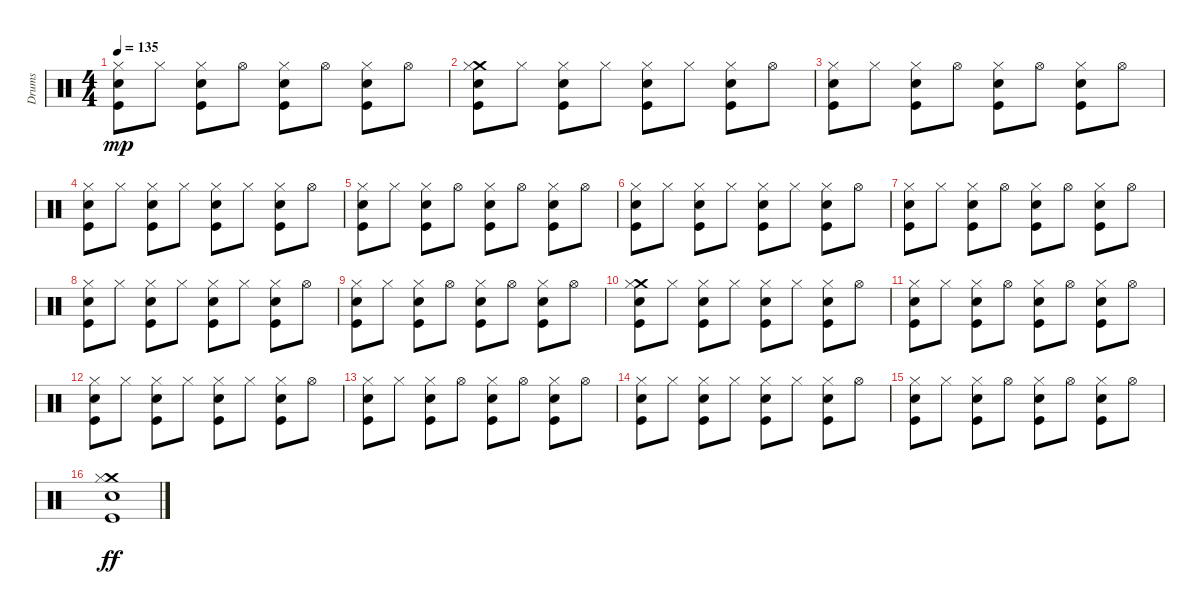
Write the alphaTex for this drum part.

\track ("Drums   " "Drums   ") {instrument percussion}
\staff {score}
\articulation defaults
\ts (4 4)
\tempo 135
\clef neutral
\ks c
("Snare (hit) 2" "Hi-Hat (closed)" "Kick (hit)").8{dy mp} "Hi-Hat (closed)".8 ("Snare (hit) 2" "Hi-Hat (closed)" "Kick (hit)").8 "Hi-Hat (open)".8 ("Snare (hit) 2" "Hi-Hat (closed)" "Kick (hit)").8 "Hi-Hat (open)".8 ("Snare (hit) 2" "Hi-Hat (closed)" "Kick (hit)").8 "Hi-Hat (open)".8 |
("Crash medium (hit)" "Snare (hit) 2" "Hi-Hat (closed)" "Kick (hit)").8 "Hi-Hat (closed)".8 ("Snare (hit) 2" "Hi-Hat (closed)" "Kick (hit)").8 "Hi-Hat (closed)".8 ("Snare (hit) 2" "Hi-Hat (closed)" "Kick (hit)").8 "Hi-Hat (closed)".8 ("Snare (hit) 2" "Hi-Hat (closed)" "Kick (hit)").8 "Hi-Hat (open)".8 |
("Snare (hit) 2" "Hi-Hat (closed)" "Kick (hit)").8 "Hi-Hat (closed)".8 ("Snare (hit) 2" "Hi-Hat (closed)" "Kick (hit)").8 "Hi-Hat (open)".8 ("Snare (hit) 2" "Hi-Hat (closed)" "Kick (hit)").8 "Hi-Hat (open)".8 ("Snare (hit) 2" "Hi-Hat (closed)" "Kick (hit)").8 "Hi-Hat (open)".8 |
("Snare (hit) 2" "Hi-Hat (closed)" "Kick (hit)").8 "Hi-Hat (closed)".8 ("Snare (hit) 2" "Hi-Hat (closed)" "Kick (hit)").8 "Hi-Hat (closed)".8 ("Snare (hit) 2" "Hi-Hat (closed)" "Kick (hit)").8 "Hi-Hat (closed)".8 ("Snare (hit) 2" "Hi-Hat (closed)" "Kick (hit)").8 "Hi-Hat (open)".8 |
("Snare (hit) 2" "Hi-Hat (closed)" "Kick (hit)").8 "Hi-Hat (closed)".8 ("Snare (hit) 2" "Hi-Hat (closed)" "Kick (hit)").8 "Hi-Hat (open)".8 ("Snare (hit) 2" "Hi-Hat (closed)" "Kick (hit)").8 "Hi-Hat (open)".8 ("Snare (hit) 2" "Hi-Hat (closed)" "Kick (hit)").8 "Hi-Hat (open)".8 |
("Snare (hit) 2" "Hi-Hat (closed)" "Kick (hit)").8 "Hi-Hat (closed)".8 ("Snare (hit) 2" "Hi-Hat (closed)" "Kick (hit)").8 "Hi-Hat (closed)".8 ("Snare (hit) 2" "Hi-Hat (closed)" "Kick (hit)").8 "Hi-Hat (closed)".8 ("Snare (hit) 2" "Hi-Hat (closed)" "Kick (hit)").8 "Hi-Hat (open)".8 |
("Snare (hit) 2" "Hi-Hat (closed)" "Kick (hit)").8 "Hi-Hat (closed)".8 ("Snare (hit) 2" "Hi-Hat (closed)" "Kick (hit)").8 "Hi-Hat (open)".8 ("Snare (hit) 2" "Hi-Hat (closed)" "Kick (hit)").8 "Hi-Hat (open)".8 ("Snare (hit) 2" "Hi-Hat (closed)" "Kick (hit)").8 "Hi-Hat (open)".8 |
("Snare (hit) 2" "Hi-Hat (closed)" "Kick (hit)").8 "Hi-Hat (closed)".8 ("Snare (hit) 2" "Hi-Hat (closed)" "Kick (hit)").8 "Hi-Hat (closed)".8 ("Snare (hit) 2" "Hi-Hat (closed)" "Kick (hit)").8 "Hi-Hat (closed)".8 ("Snare (hit) 2" "Hi-Hat (closed)" "Kick (hit)").8 "Hi-Hat (open)".8 |
("Snare (hit) 2" "Hi-Hat (closed)" "Kick (hit)").8 "Hi-Hat (closed)".8 ("Snare (hit) 2" "Hi-Hat (closed)" "Kick (hit)").8 "Hi-Hat (open)".8 ("Snare (hit) 2" "Hi-Hat (closed)" "Kick (hit)").8 "Hi-Hat (open)".8 ("Snare (hit) 2" "Hi-Hat (closed)" "Kick (hit)").8 "Hi-Hat (open)".8 |
("Crash medium (hit)" "Snare (hit) 2" "Hi-Hat (closed)" "Kick (hit)").8 "Hi-Hat (closed)".8 ("Snare (hit) 2" "Hi-Hat (closed)" "Kick (hit)").8 "Hi-Hat (closed)".8 ("Snare (hit) 2" "Hi-Hat (closed)" "Kick (hit)").8 "Hi-Hat (closed)".8 ("Snare (hit) 2" "Hi-Hat (closed)" "Kick (hit)").8 "Hi-Hat (open)".8 |
("Snare (hit) 2" "Hi-Hat (closed)" "Kick (hit)").8 "Hi-Hat (closed)".8 ("Snare (hit) 2" "Hi-Hat (closed)" "Kick (hit)").8 "Hi-Hat (open)".8 ("Snare (hit) 2" "Hi-Hat (closed)" "Kick (hit)").8 "Hi-Hat (open)".8 ("Snare (hit) 2" "Hi-Hat (closed)" "Kick (hit)").8 "Hi-Hat (open)".8 |
("Snare (hit) 2" "Hi-Hat (closed)" "Kick (hit)").8 "Hi-Hat (closed)".8 ("Snare (hit) 2" "Hi-Hat (closed)" "Kick (hit)").8 "Hi-Hat (closed)".8 ("Snare (hit) 2" "Hi-Hat (closed)" "Kick (hit)").8 "Hi-Hat (closed)".8 ("Snare (hit) 2" "Hi-Hat (closed)" "Kick (hit)").8 "Hi-Hat (open)".8 |
("Snare (hit) 2" "Hi-Hat (closed)" "Kick (hit)").8 "Hi-Hat (closed)".8 ("Snare (hit) 2" "Hi-Hat (closed)" "Kick (hit)").8 "Hi-Hat (open)".8 ("Snare (hit) 2" "Hi-Hat (closed)" "Kick (hit)").8 "Hi-Hat (open)".8 ("Snare (hit) 2" "Hi-Hat (closed)" "Kick (hit)").8 "Hi-Hat (open)".8 |
("Snare (hit) 2" "Hi-Hat (closed)" "Kick (hit)").8 "Hi-Hat (closed)".8 ("Snare (hit) 2" "Hi-Hat (closed)" "Kick (hit)").8 "Hi-Hat (closed)".8 ("Snare (hit) 2" "Hi-Hat (closed)" "Kick (hit)").8 "Hi-Hat (closed)".8 ("Snare (hit) 2" "Hi-Hat (closed)" "Kick (hit)").8 "Hi-Hat (open)".8 |
("Snare (hit) 2" "Hi-Hat (closed)" "Kick (hit)").8 "Hi-Hat (closed)".8 ("Snare (hit) 2" "Hi-Hat (closed)" "Kick (hit)").8 "Hi-Hat (open)".8 ("Snare (hit) 2" "Hi-Hat (closed)" "Kick (hit)").8 "Hi-Hat (open)".8 ("Snare (hit) 2" "Hi-Hat (closed)" "Kick (hit)").8 "Hi-Hat (open)".8 |
("Crash medium (hit)" "Snare (hit) 2" "Hi-Hat (closed)" "Kick (hit)").1{dy ff}
